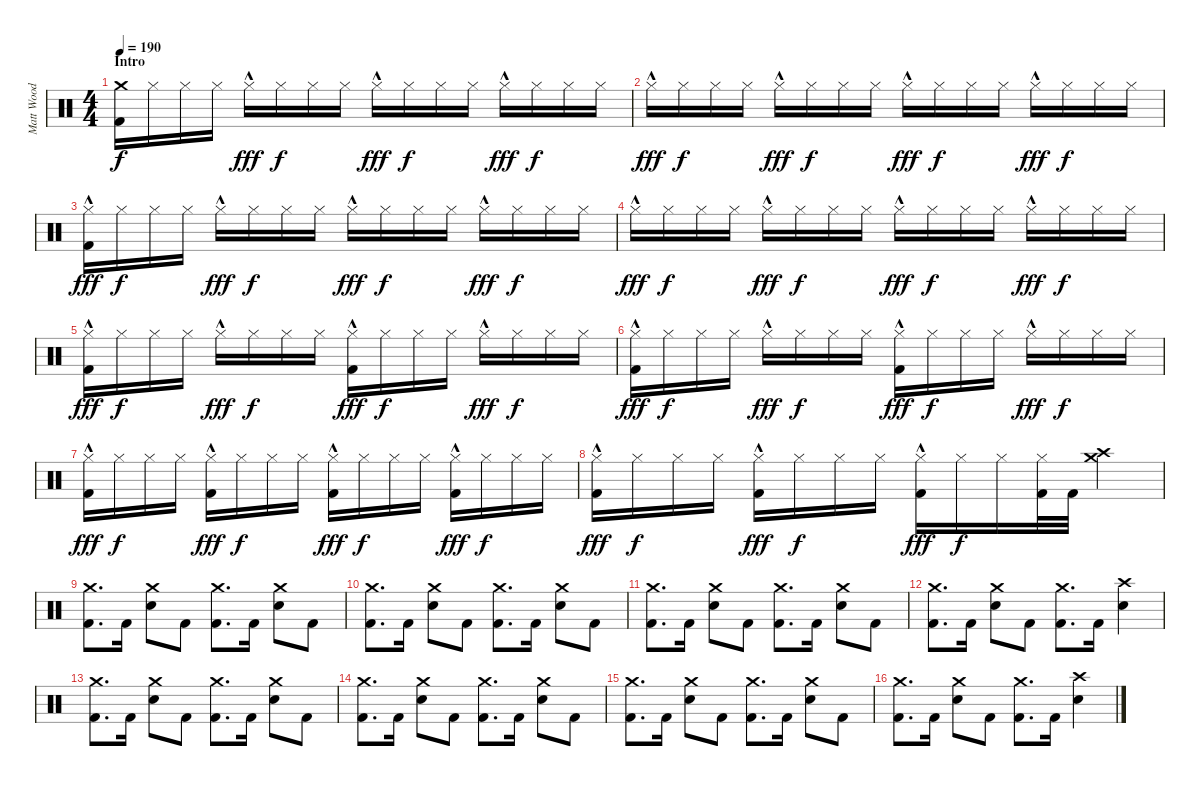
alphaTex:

\track ("Matt Wood" "Matt Wood") {instrument percussion}
\staff {score}
\articulation defaults
\ts (4 4)
\section ("" "Intro")
\tempo 190
\clef neutral
\ks c
("Crash medium (hit)" "Kick (hit) 2").16{dy f} "Hi-Hat (closed)".16 "Hi-Hat (closed)".16 "Hi-Hat (closed)".16 "Hi-Hat (closed)"{hac}.16{dy fff} "Hi-Hat (closed)".16{dy f} "Hi-Hat (closed)".16 "Hi-Hat (closed)".16 "Hi-Hat (closed)"{hac}.16{dy fff} "Hi-Hat (closed)".16{dy f} "Hi-Hat (closed)".16 "Hi-Hat (closed)".16 "Hi-Hat (closed)"{hac}.16{dy fff} "Hi-Hat (closed)".16{dy f} "Hi-Hat (closed)".16 "Hi-Hat (closed)".16 |
"Hi-Hat (closed)"{hac}.16{dy fff} "Hi-Hat (closed)".16{dy f} "Hi-Hat (closed)".16 "Hi-Hat (closed)".16 "Hi-Hat (closed)"{hac}.16{dy fff} "Hi-Hat (closed)".16{dy f} "Hi-Hat (closed)".16 "Hi-Hat (closed)".16 "Hi-Hat (closed)"{hac}.16{dy fff} "Hi-Hat (closed)".16{dy f} "Hi-Hat (closed)".16 "Hi-Hat (closed)".16 "Hi-Hat (closed)"{hac}.16{dy fff} "Hi-Hat (closed)".16{dy f} "Hi-Hat (closed)".16 "Hi-Hat (closed)".16 |
("Hi-Hat (closed)"{hac} "Kick (hit) 2").16{dy fff} "Hi-Hat (closed)".16{dy f} "Hi-Hat (closed)".16 "Hi-Hat (closed)".16 "Hi-Hat (closed)"{hac}.16{dy fff} "Hi-Hat (closed)".16{dy f} "Hi-Hat (closed)".16 "Hi-Hat (closed)".16 "Hi-Hat (closed)"{hac}.16{dy fff} "Hi-Hat (closed)".16{dy f} "Hi-Hat (closed)".16 "Hi-Hat (closed)".16 "Hi-Hat (closed)"{hac}.16{dy fff} "Hi-Hat (closed)".16{dy f} "Hi-Hat (closed)".16 "Hi-Hat (closed)".16 |
"Hi-Hat (closed)"{hac}.16{dy fff} "Hi-Hat (closed)".16{dy f} "Hi-Hat (closed)".16 "Hi-Hat (closed)".16 "Hi-Hat (closed)"{hac}.16{dy fff} "Hi-Hat (closed)".16{dy f} "Hi-Hat (closed)".16 "Hi-Hat (closed)".16 "Hi-Hat (closed)"{hac}.16{dy fff} "Hi-Hat (closed)".16{dy f} "Hi-Hat (closed)".16 "Hi-Hat (closed)".16 "Hi-Hat (closed)"{hac}.16{dy fff} "Hi-Hat (closed)".16{dy f} "Hi-Hat (closed)".16 "Hi-Hat (closed)".16 |
("Hi-Hat (closed)"{hac} "Kick (hit) 2").16{dy fff} "Hi-Hat (closed)".16{dy f} "Hi-Hat (closed)".16 "Hi-Hat (closed)".16 "Hi-Hat (closed)"{hac}.16{dy fff} "Hi-Hat (closed)".16{dy f} "Hi-Hat (closed)".16 "Hi-Hat (closed)".16 ("Hi-Hat (closed)"{hac} "Kick (hit) 2").16{dy fff} "Hi-Hat (closed)".16{dy f} "Hi-Hat (closed)".16 "Hi-Hat (closed)".16 "Hi-Hat (closed)"{hac}.16{dy fff} "Hi-Hat (closed)".16{dy f} "Hi-Hat (closed)".16 "Hi-Hat (closed)".16 |
("Hi-Hat (closed)"{hac} "Kick (hit) 2").16{dy fff} "Hi-Hat (closed)".16{dy f} "Hi-Hat (closed)".16 "Hi-Hat (closed)".16 "Hi-Hat (closed)"{hac}.16{dy fff} "Hi-Hat (closed)".16{dy f} "Hi-Hat (closed)".16 "Hi-Hat (closed)".16 ("Hi-Hat (closed)"{hac} "Kick (hit) 2").16{dy fff} "Hi-Hat (closed)".16{dy f} "Hi-Hat (closed)".16 "Hi-Hat (closed)".16 "Hi-Hat (closed)"{hac}.16{dy fff} "Hi-Hat (closed)".16{dy f} "Hi-Hat (closed)".16 "Hi-Hat (closed)".16 |
("Hi-Hat (closed)"{hac} "Kick (hit) 2").16{dy fff} "Hi-Hat (closed)".16{dy f} "Hi-Hat (closed)".16 "Hi-Hat (closed)".16 ("Hi-Hat (closed)"{hac} "Kick (hit) 2").16{dy fff} "Hi-Hat (closed)".16{dy f} "Hi-Hat (closed)".16 "Hi-Hat (closed)".16 ("Hi-Hat (closed)"{hac} "Kick (hit) 2").16{dy fff} "Hi-Hat (closed)".16{dy f} "Hi-Hat (closed)".16 "Hi-Hat (closed)".16 ("Hi-Hat (closed)"{hac} "Kick (hit) 2").16{dy fff} "Hi-Hat (closed)".16{dy f} "Hi-Hat (closed)".16 "Hi-Hat (closed)".16 |
("Hi-Hat (closed)"{hac} "Kick (hit) 2").16{dy fff} "Hi-Hat (closed)".16{dy f} "Hi-Hat (closed)".16 "Hi-Hat (closed)".16 ("Hi-Hat (closed)"{hac} "Kick (hit) 2").16{dy fff} "Hi-Hat (closed)".16{dy f} "Hi-Hat (closed)".16 "Hi-Hat (closed)".16 ("Hi-Hat (closed)"{hac} "Kick (hit) 2").16{dy fff} "Hi-Hat (closed)".16{dy f} "Hi-Hat (closed)".16 ("Hi-Hat (closed)" "Kick (hit) 2").32 "Kick (hit) 2".32 ("Crash high (hit)" "Crash medium (hit)").4 |
("Crash medium (hit)" "Kick (hit) 2").8{d} "Kick (hit) 2".16 ("Crash medium (hit)" "Snare (hit) 2").8 "Kick (hit) 2".8 ("Crash medium (hit)" "Kick (hit) 2").8{d} "Kick (hit) 2".16 ("Crash medium (hit)" "Snare (hit) 2").8 "Kick (hit) 2".8 |
("Crash medium (hit)" "Kick (hit) 2").8{d} "Kick (hit) 2".16 ("Crash medium (hit)" "Snare (hit) 2").8 "Kick (hit) 2".8 ("Crash medium (hit)" "Kick (hit) 2").8{d} "Kick (hit) 2".16 ("Crash medium (hit)" "Snare (hit) 2").8 "Kick (hit) 2".8 |
("Crash medium (hit)" "Kick (hit) 2").8{d} "Kick (hit) 2".16 ("Crash medium (hit)" "Snare (hit) 2").8 "Kick (hit) 2".8 ("Crash medium (hit)" "Kick (hit) 2").8{d} "Kick (hit) 2".16 ("Crash medium (hit)" "Snare (hit) 2").8 "Kick (hit) 2".8 |
("Crash medium (hit)" "Kick (hit) 2").8{d} "Kick (hit) 2".16 ("Crash medium (hit)" "Snare (hit) 2").8 "Kick (hit) 2".8 ("Crash medium (hit)" "Kick (hit) 2").8{d} "Kick (hit) 2".16 ("Crash high (hit)" "Snare (hit) 2").4 |
("Crash medium (hit)" "Kick (hit) 2").8{d} "Kick (hit) 2".16 ("Crash medium (hit)" "Snare (hit) 2").8 "Kick (hit) 2".8 ("Crash medium (hit)" "Kick (hit) 2").8{d} "Kick (hit) 2".16 ("Crash medium (hit)" "Snare (hit) 2").8 "Kick (hit) 2".8 |
("Crash medium (hit)" "Kick (hit) 2").8{d} "Kick (hit) 2".16 ("Crash medium (hit)" "Snare (hit) 2").8 "Kick (hit) 2".8 ("Crash medium (hit)" "Kick (hit) 2").8{d} "Kick (hit) 2".16 ("Crash medium (hit)" "Snare (hit) 2").8 "Kick (hit) 2".8 |
("Crash medium (hit)" "Kick (hit) 2").8{d} "Kick (hit) 2".16 ("Crash medium (hit)" "Snare (hit) 2").8 "Kick (hit) 2".8 ("Crash medium (hit)" "Kick (hit) 2").8{d} "Kick (hit) 2".16 ("Crash medium (hit)" "Snare (hit) 2").8 "Kick (hit) 2".8 |
("Crash medium (hit)" "Kick (hit) 2").8{d} "Kick (hit) 2".16 ("Crash medium (hit)" "Snare (hit) 2").8 "Kick (hit) 2".8 ("Crash medium (hit)" "Kick (hit) 2").8{d} "Kick (hit) 2".16 ("Crash high (hit)" "Snare (hit) 2").4
